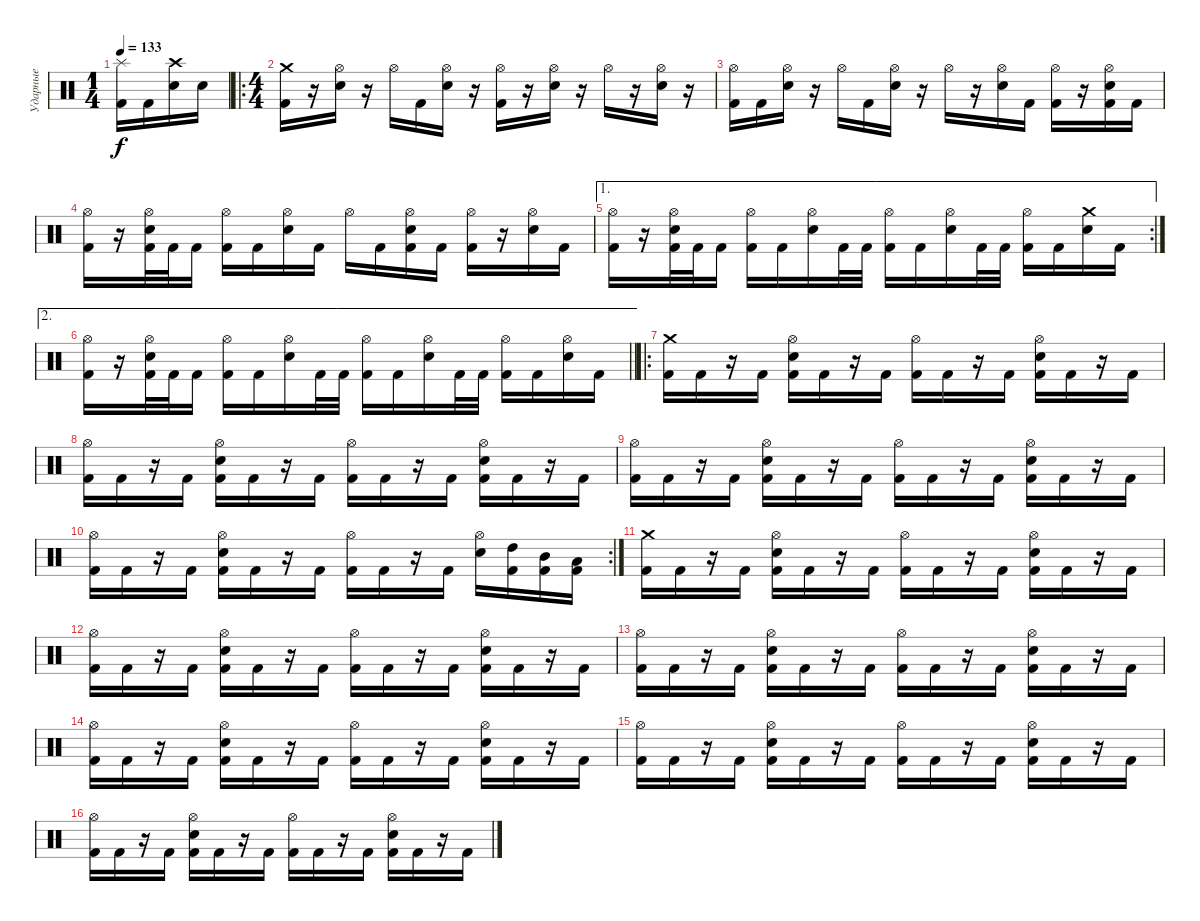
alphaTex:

\track ("Ударные" "Ударные") {instrument percussion}
\staff {score}
\articulation defaults
\ts (1 4)
\tempo 133
\clef neutral
\ks c
("Splash (hit)" "Kick (hit) 2").16{dy f} "Kick (hit) 2".16 ("Crash high (hit)" "Snare (hit) 2").16 "Snare (hit) 2".16 |
\ro
\ts (4 4)
("Crash medium (hit)" "Kick (hit) 2").16 r.16 ("Hi-Hat (open)" "Snare (hit) 2").16 r.16 "Hi-Hat (open)".16 "Kick (hit) 2".16 ("Hi-Hat (open)" "Snare (hit) 2").16 r.16 ("Hi-Hat (open)" "Kick (hit) 2").16 r.16 ("Hi-Hat (open)" "Snare (hit) 2").16 r.16 "Hi-Hat (open)".16 r.16 ("Hi-Hat (open)" "Snare (hit) 2").16 r.16 |
("Hi-Hat (open)" "Kick (hit) 2").16 "Kick (hit) 2".16 ("Hi-Hat (open)" "Snare (hit) 2").16 r.16 "Hi-Hat (open)".16 "Kick (hit) 2".16 ("Hi-Hat (open)" "Snare (hit) 2").16 r.16 "Hi-Hat (open)".16 r.16 ("Hi-Hat (open)" "Snare (hit) 2").16 "Kick (hit) 2".16 ("Hi-Hat (open)" "Kick (hit) 2").16 r.16 ("Hi-Hat (open)" "Snare (hit) 2" "Kick (hit) 2").16 "Kick (hit) 2".16 |
("Hi-Hat (open)" "Kick (hit) 2").16 r.16 ("Hi-Hat (open)" "Snare (hit) 2" "Kick (hit) 2").32 "Kick (hit) 2".32 "Kick (hit) 2".16 ("Hi-Hat (open)" "Kick (hit) 2").16 "Kick (hit) 2".16 ("Hi-Hat (open)" "Snare (hit) 2").16 "Kick (hit) 2".16 "Hi-Hat (open)".16 "Kick (hit) 2".16 ("Hi-Hat (open)" "Snare (hit) 2" "Kick (hit) 2").16 "Kick (hit) 2".16 ("Hi-Hat (open)" "Kick (hit) 2").16 r.16 ("Hi-Hat (open)" "Snare (hit) 2").16 "Kick (hit) 2".16 |
\ae 1
\rc 2
("Hi-Hat (open)" "Kick (hit) 2").16 r.16 ("Hi-Hat (open)" "Snare (hit) 2" "Kick (hit) 2").32 "Kick (hit) 2".32 "Kick (hit) 2".16 ("Hi-Hat (open)" "Kick (hit) 2").16 "Kick (hit) 2".16 ("Hi-Hat (open)" "Snare (hit) 2").16 "Kick (hit) 2".32 "Kick (hit) 2".32 ("Hi-Hat (open)" "Kick (hit) 2").16 "Kick (hit) 2".16 ("Hi-Hat (open)" "Snare (hit) 2").16 "Kick (hit) 2".32 "Kick (hit) 2".32 ("Hi-Hat (open)" "Kick (hit) 2").16 "Kick (hit) 2".16 ("Crash medium (hit)" "Snare (hit) 2").16 "Kick (hit) 2".16 |
\ae 2
\barLineRight lightlight
("Hi-Hat (open)" "Kick (hit) 2").16 r.16 ("Hi-Hat (open)" "Snare (hit) 2" "Kick (hit) 2").32 "Kick (hit) 2".32 "Kick (hit) 2".16 ("Hi-Hat (open)" "Kick (hit) 2").16 "Kick (hit) 2".16 ("Hi-Hat (open)" "Snare (hit) 2").16 "Kick (hit) 2".32 "Kick (hit) 2".32 ("Hi-Hat (open)" "Kick (hit) 2").16 "Kick (hit) 2".16 ("Hi-Hat (open)" "Snare (hit) 2").16 "Kick (hit) 2".32 "Kick (hit) 2".32 ("Hi-Hat (open)" "Kick (hit) 2").16 "Kick (hit) 2".16 ("Hi-Hat (open)" "Snare (hit) 2").16 "Kick (hit) 2".16 |
\ro
("Crash medium (hit)" "Kick (hit) 2").16 "Kick (hit) 2".16 r.16 "Kick (hit) 2".16 ("Hi-Hat (open)" "Snare (hit) 2" "Kick (hit) 2").16 "Kick (hit) 2".16 r.16 "Kick (hit) 2".16 ("Hi-Hat (open)" "Kick (hit) 2").16 "Kick (hit) 2".16 r.16 "Kick (hit) 2".16 ("Hi-Hat (open)" "Snare (hit) 2" "Kick (hit) 2").16 "Kick (hit) 2".16 r.16 "Kick (hit) 2".16 |
("Hi-Hat (open)" "Kick (hit) 2").16 "Kick (hit) 2".16 r.16 "Kick (hit) 2".16 ("Hi-Hat (open)" "Snare (hit) 2" "Kick (hit) 2").16 "Kick (hit) 2".16 r.16 "Kick (hit) 2".16 ("Hi-Hat (open)" "Kick (hit) 2").16 "Kick (hit) 2".16 r.16 "Kick (hit) 2".16 ("Hi-Hat (open)" "Snare (hit) 2" "Kick (hit) 2").16 "Kick (hit) 2".16 r.16 "Kick (hit) 2".16 |
("Hi-Hat (open)" "Kick (hit) 2").16 "Kick (hit) 2".16 r.16 "Kick (hit) 2".16 ("Hi-Hat (open)" "Snare (hit) 2" "Kick (hit) 2").16 "Kick (hit) 2".16 r.16 "Kick (hit) 2".16 ("Hi-Hat (open)" "Kick (hit) 2").16 "Kick (hit) 2".16 r.16 "Kick (hit) 2".16 ("Hi-Hat (open)" "Snare (hit) 2" "Kick (hit) 2").16 "Kick (hit) 2".16 r.16 "Kick (hit) 2".16 |
\rc 2
("Hi-Hat (open)" "Kick (hit) 2").16 "Kick (hit) 2".16 r.16 "Kick (hit) 2".16 ("Hi-Hat (open)" "Snare (hit) 2" "Kick (hit) 2").16 "Kick (hit) 2".16 r.16 "Kick (hit) 2".16 ("Hi-Hat (open)" "Kick (hit) 2").16 "Kick (hit) 2".16 r.16 "Kick (hit) 2".16 ("Hi-Hat (open)" "Snare (hit) 2").16 ("High Tom (hit)" "Kick (hit) 2").16 ("Mid Tom (hit)" "Kick (hit) 2").16 ("Low Tom (hit)" "Kick (hit) 2").16 |
("Crash medium (hit)" "Kick (hit) 2").16 "Kick (hit) 2".16 r.16 "Kick (hit) 2".16 ("Hi-Hat (open)" "Snare (hit) 2" "Kick (hit) 2").16 "Kick (hit) 2".16 r.16 "Kick (hit) 2".16 ("Hi-Hat (open)" "Kick (hit) 2").16 "Kick (hit) 2".16 r.16 "Kick (hit) 2".16 ("Hi-Hat (open)" "Snare (hit) 2" "Kick (hit) 2").16 "Kick (hit) 2".16 r.16 "Kick (hit) 2".16 |
("Hi-Hat (open)" "Kick (hit) 2").16 "Kick (hit) 2".16 r.16 "Kick (hit) 2".16 ("Hi-Hat (open)" "Snare (hit) 2" "Kick (hit) 2").16 "Kick (hit) 2".16 r.16 "Kick (hit) 2".16 ("Hi-Hat (open)" "Kick (hit) 2").16 "Kick (hit) 2".16 r.16 "Kick (hit) 2".16 ("Hi-Hat (open)" "Snare (hit) 2" "Kick (hit) 2").16 "Kick (hit) 2".16 r.16 "Kick (hit) 2".16 |
("Hi-Hat (open)" "Kick (hit) 2").16 "Kick (hit) 2".16 r.16 "Kick (hit) 2".16 ("Hi-Hat (open)" "Snare (hit) 2" "Kick (hit) 2").16 "Kick (hit) 2".16 r.16 "Kick (hit) 2".16 ("Hi-Hat (open)" "Kick (hit) 2").16 "Kick (hit) 2".16 r.16 "Kick (hit) 2".16 ("Hi-Hat (open)" "Snare (hit) 2" "Kick (hit) 2").16 "Kick (hit) 2".16 r.16 "Kick (hit) 2".16 |
("Hi-Hat (open)" "Kick (hit) 2").16 "Kick (hit) 2".16 r.16 "Kick (hit) 2".16 ("Hi-Hat (open)" "Snare (hit) 2" "Kick (hit) 2").16 "Kick (hit) 2".16 r.16 "Kick (hit) 2".16 ("Hi-Hat (open)" "Kick (hit) 2").16 "Kick (hit) 2".16 r.16 "Kick (hit) 2".16 ("Hi-Hat (open)" "Snare (hit) 2" "Kick (hit) 2").16 "Kick (hit) 2".16 r.16 "Kick (hit) 2".16 |
("Hi-Hat (open)" "Kick (hit) 2").16 "Kick (hit) 2".16 r.16 "Kick (hit) 2".16 ("Hi-Hat (open)" "Snare (hit) 2" "Kick (hit) 2").16 "Kick (hit) 2".16 r.16 "Kick (hit) 2".16 ("Hi-Hat (open)" "Kick (hit) 2").16 "Kick (hit) 2".16 r.16 "Kick (hit) 2".16 ("Hi-Hat (open)" "Snare (hit) 2" "Kick (hit) 2").16 "Kick (hit) 2".16 r.16 "Kick (hit) 2".16 |
("Hi-Hat (open)" "Kick (hit) 2").16 "Kick (hit) 2".16 r.16 "Kick (hit) 2".16 ("Hi-Hat (open)" "Snare (hit) 2" "Kick (hit) 2").16 "Kick (hit) 2".16 r.16 "Kick (hit) 2".16 ("Hi-Hat (open)" "Kick (hit) 2").16 "Kick (hit) 2".16 r.16 "Kick (hit) 2".16 ("Hi-Hat (open)" "Snare (hit) 2" "Kick (hit) 2").16 "Kick (hit) 2".16 r.16 "Kick (hit) 2".16
